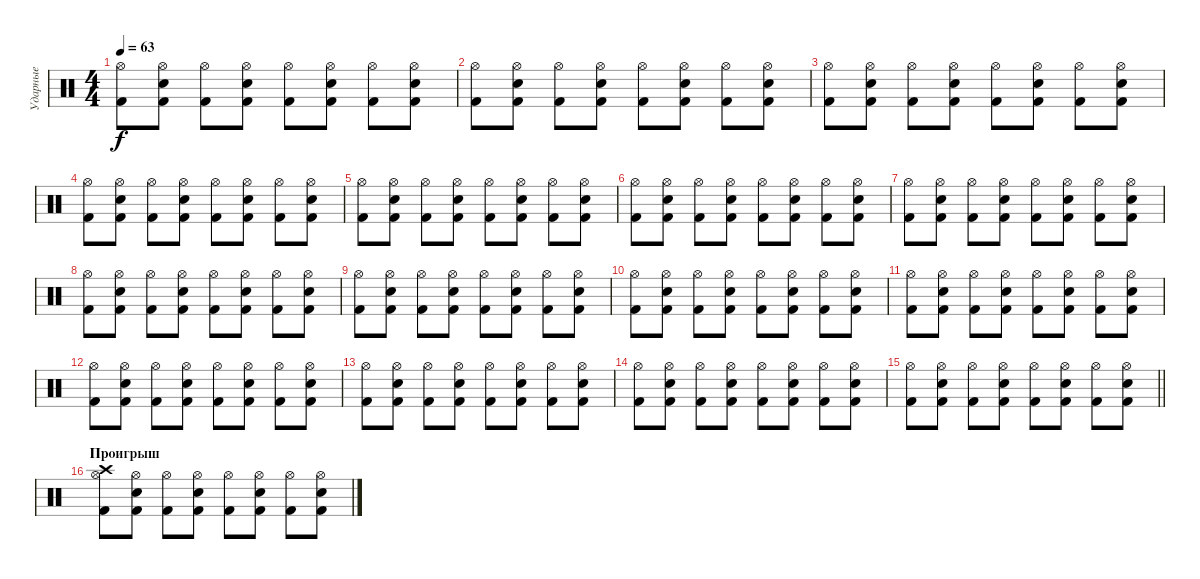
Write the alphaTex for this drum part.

\track ("Ударные" "Ударные") {instrument percussion}
\staff {score}
\articulation defaults
\ts (4 4)
\tempo 63
\clef neutral
\ks c
("Hi-Hat (open)" "Kick (hit) 2").8{dy f} ("Hi-Hat (open)" "Snare (hit) 2" "Kick (hit) 2").8 ("Hi-Hat (open)" "Kick (hit) 2").8 ("Hi-Hat (open)" "Snare (hit) 2" "Kick (hit) 2").8 ("Hi-Hat (open)" "Kick (hit) 2").8 ("Hi-Hat (open)" "Snare (hit) 2" "Kick (hit) 2").8 ("Hi-Hat (open)" "Kick (hit) 2").8 ("Hi-Hat (open)" "Snare (hit) 2" "Kick (hit) 2").8 |
("Hi-Hat (open)" "Kick (hit) 2").8 ("Hi-Hat (open)" "Snare (hit) 2" "Kick (hit) 2").8 ("Hi-Hat (open)" "Kick (hit) 2").8 ("Hi-Hat (open)" "Snare (hit) 2" "Kick (hit) 2").8 ("Hi-Hat (open)" "Kick (hit) 2").8 ("Hi-Hat (open)" "Snare (hit) 2" "Kick (hit) 2").8 ("Hi-Hat (open)" "Kick (hit) 2").8 ("Hi-Hat (open)" "Snare (hit) 2" "Kick (hit) 2").8 |
("Hi-Hat (open)" "Kick (hit) 2").8 ("Hi-Hat (open)" "Snare (hit) 2" "Kick (hit) 2").8 ("Hi-Hat (open)" "Kick (hit) 2").8 ("Hi-Hat (open)" "Snare (hit) 2" "Kick (hit) 2").8 ("Hi-Hat (open)" "Kick (hit) 2").8 ("Hi-Hat (open)" "Snare (hit) 2" "Kick (hit) 2").8 ("Hi-Hat (open)" "Kick (hit) 2").8 ("Hi-Hat (open)" "Snare (hit) 2" "Kick (hit) 2").8 |
("Hi-Hat (open)" "Kick (hit) 2").8 ("Hi-Hat (open)" "Snare (hit) 2" "Kick (hit) 2").8 ("Hi-Hat (open)" "Kick (hit) 2").8 ("Hi-Hat (open)" "Snare (hit) 2" "Kick (hit) 2").8 ("Hi-Hat (open)" "Kick (hit) 2").8 ("Hi-Hat (open)" "Snare (hit) 2" "Kick (hit) 2").8 ("Hi-Hat (open)" "Kick (hit) 2").8 ("Hi-Hat (open)" "Snare (hit) 2" "Kick (hit) 2").8 |
("Hi-Hat (open)" "Kick (hit) 2").8 ("Hi-Hat (open)" "Snare (hit) 2" "Kick (hit) 2").8 ("Hi-Hat (open)" "Kick (hit) 2").8 ("Hi-Hat (open)" "Snare (hit) 2" "Kick (hit) 2").8 ("Hi-Hat (open)" "Kick (hit) 2").8 ("Hi-Hat (open)" "Snare (hit) 2" "Kick (hit) 2").8 ("Hi-Hat (open)" "Kick (hit) 2").8 ("Hi-Hat (open)" "Snare (hit) 2" "Kick (hit) 2").8 |
("Hi-Hat (open)" "Kick (hit) 2").8 ("Hi-Hat (open)" "Snare (hit) 2" "Kick (hit) 2").8 ("Hi-Hat (open)" "Kick (hit) 2").8 ("Hi-Hat (open)" "Snare (hit) 2" "Kick (hit) 2").8 ("Hi-Hat (open)" "Kick (hit) 2").8 ("Hi-Hat (open)" "Snare (hit) 2" "Kick (hit) 2").8 ("Hi-Hat (open)" "Kick (hit) 2").8 ("Hi-Hat (open)" "Snare (hit) 2" "Kick (hit) 2").8 |
("Hi-Hat (open)" "Kick (hit) 2").8 ("Hi-Hat (open)" "Snare (hit) 2" "Kick (hit) 2").8 ("Hi-Hat (open)" "Kick (hit) 2").8 ("Hi-Hat (open)" "Snare (hit) 2" "Kick (hit) 2").8 ("Hi-Hat (open)" "Kick (hit) 2").8 ("Hi-Hat (open)" "Snare (hit) 2" "Kick (hit) 2").8 ("Hi-Hat (open)" "Kick (hit) 2").8 ("Hi-Hat (open)" "Snare (hit) 2" "Kick (hit) 2").8 |
("Hi-Hat (open)" "Kick (hit) 2").8 ("Hi-Hat (open)" "Snare (hit) 2" "Kick (hit) 2").8 ("Hi-Hat (open)" "Kick (hit) 2").8 ("Hi-Hat (open)" "Snare (hit) 2" "Kick (hit) 2").8 ("Hi-Hat (open)" "Kick (hit) 2").8 ("Hi-Hat (open)" "Snare (hit) 2" "Kick (hit) 2").8 ("Hi-Hat (open)" "Kick (hit) 2").8 ("Hi-Hat (open)" "Snare (hit) 2" "Kick (hit) 2").8 |
("Hi-Hat (open)" "Kick (hit) 2").8 ("Hi-Hat (open)" "Snare (hit) 2" "Kick (hit) 2").8 ("Hi-Hat (open)" "Kick (hit) 2").8 ("Hi-Hat (open)" "Snare (hit) 2" "Kick (hit) 2").8 ("Hi-Hat (open)" "Kick (hit) 2").8 ("Hi-Hat (open)" "Snare (hit) 2" "Kick (hit) 2").8 ("Hi-Hat (open)" "Kick (hit) 2").8 ("Hi-Hat (open)" "Snare (hit) 2" "Kick (hit) 2").8 |
("Hi-Hat (open)" "Kick (hit) 2").8 ("Hi-Hat (open)" "Snare (hit) 2" "Kick (hit) 2").8 ("Hi-Hat (open)" "Kick (hit) 2").8 ("Hi-Hat (open)" "Snare (hit) 2" "Kick (hit) 2").8 ("Hi-Hat (open)" "Kick (hit) 2").8 ("Hi-Hat (open)" "Snare (hit) 2" "Kick (hit) 2").8 ("Hi-Hat (open)" "Kick (hit) 2").8 ("Hi-Hat (open)" "Snare (hit) 2" "Kick (hit) 2").8 |
("Hi-Hat (open)" "Kick (hit) 2").8 ("Hi-Hat (open)" "Snare (hit) 2" "Kick (hit) 2").8 ("Hi-Hat (open)" "Kick (hit) 2").8 ("Hi-Hat (open)" "Snare (hit) 2" "Kick (hit) 2").8 ("Hi-Hat (open)" "Kick (hit) 2").8 ("Hi-Hat (open)" "Snare (hit) 2" "Kick (hit) 2").8 ("Hi-Hat (open)" "Kick (hit) 2").8 ("Hi-Hat (open)" "Snare (hit) 2" "Kick (hit) 2").8 |
("Hi-Hat (open)" "Kick (hit) 2").8 ("Hi-Hat (open)" "Snare (hit) 2" "Kick (hit) 2").8 ("Hi-Hat (open)" "Kick (hit) 2").8 ("Hi-Hat (open)" "Snare (hit) 2" "Kick (hit) 2").8 ("Hi-Hat (open)" "Kick (hit) 2").8 ("Hi-Hat (open)" "Snare (hit) 2" "Kick (hit) 2").8 ("Hi-Hat (open)" "Kick (hit) 2").8 ("Hi-Hat (open)" "Snare (hit) 2" "Kick (hit) 2").8 |
("Hi-Hat (open)" "Kick (hit) 2").8 ("Hi-Hat (open)" "Snare (hit) 2" "Kick (hit) 2").8 ("Hi-Hat (open)" "Kick (hit) 2").8 ("Hi-Hat (open)" "Snare (hit) 2" "Kick (hit) 2").8 ("Hi-Hat (open)" "Kick (hit) 2").8 ("Hi-Hat (open)" "Snare (hit) 2" "Kick (hit) 2").8 ("Hi-Hat (open)" "Kick (hit) 2").8 ("Hi-Hat (open)" "Snare (hit) 2" "Kick (hit) 2").8 |
("Hi-Hat (open)" "Kick (hit) 2").8 ("Hi-Hat (open)" "Snare (hit) 2" "Kick (hit) 2").8 ("Hi-Hat (open)" "Kick (hit) 2").8 ("Hi-Hat (open)" "Snare (hit) 2" "Kick (hit) 2").8 ("Hi-Hat (open)" "Kick (hit) 2").8 ("Hi-Hat (open)" "Snare (hit) 2" "Kick (hit) 2").8 ("Hi-Hat (open)" "Kick (hit) 2").8 ("Hi-Hat (open)" "Snare (hit) 2" "Kick (hit) 2").8 |
\barLineRight lightlight
("Hi-Hat (open)" "Kick (hit) 2").8 ("Hi-Hat (open)" "Snare (hit) 2" "Kick (hit) 2").8 ("Hi-Hat (open)" "Kick (hit) 2").8 ("Hi-Hat (open)" "Snare (hit) 2" "Kick (hit) 2").8 ("Hi-Hat (open)" "Kick (hit) 2").8 ("Hi-Hat (open)" "Snare (hit) 2" "Kick (hit) 2").8 ("Hi-Hat (open)" "Kick (hit) 2").8 ("Hi-Hat (open)" "Snare (hit) 2" "Kick (hit) 2").8 |
\section ("" "Проигрыш")
("Hi-Hat (open)" "Crash high (hit)" "Kick (hit) 2").8 ("Hi-Hat (open)" "Snare (hit) 2" "Kick (hit) 2").8 ("Hi-Hat (open)" "Kick (hit) 2").8 ("Hi-Hat (open)" "Snare (hit) 2" "Kick (hit) 2").8 ("Hi-Hat (open)" "Kick (hit) 2").8 ("Hi-Hat (open)" "Snare (hit) 2" "Kick (hit) 2").8 ("Hi-Hat (open)" "Kick (hit) 2").8 ("Hi-Hat (open)" "Snare (hit) 2" "Kick (hit) 2").8
